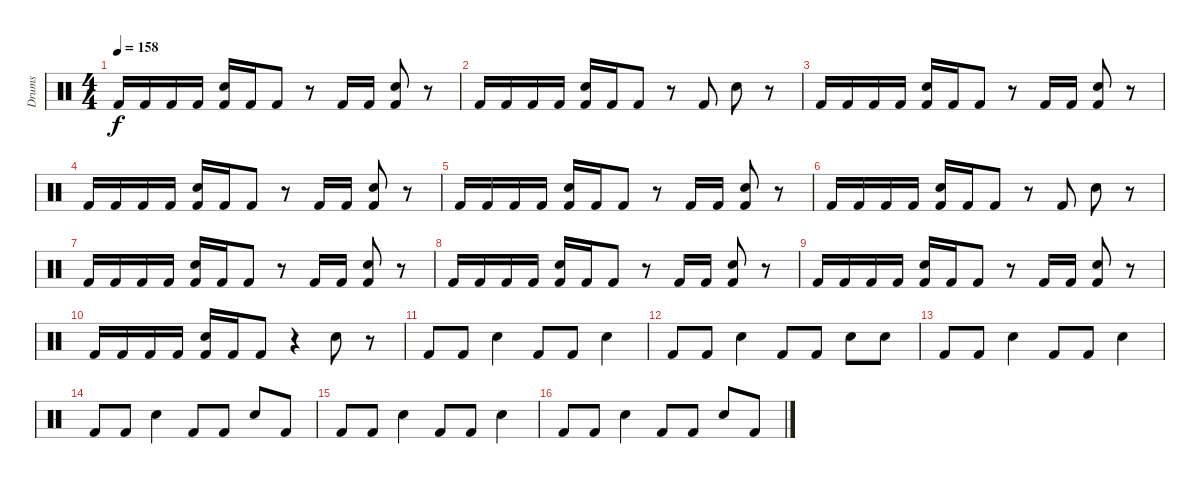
\track ("Drums" "Drums") {instrument percussion}
\staff {score}
\articulation defaults
\ts (4 4)
\tempo 158
\clef neutral
\ks c "Kick (hit) 2".16{dy f} "Kick (hit) 2".16 "Kick (hit) 2".16 "Kick (hit) 2".16
("Snare (hit) 2" "Kick (hit) 2").16 "Kick (hit) 2".16 "Kick (hit) 2".8 r.8 "Kick (hit) 2".16 "Kick (hit) 2".16 ("Snare (hit) 2" "Kick (hit) 2").8 r.8 |
"Kick (hit) 2".16 "Kick (hit) 2".16 "Kick (hit) 2".16 "Kick (hit) 2".16 ("Snare (hit) 2" "Kick (hit) 2").16 "Kick (hit) 2".16 "Kick (hit) 2".8 r.8 "Kick (hit) 2".8 "Snare (hit) 2".8 r.8 |
"Kick (hit) 2".16 "Kick (hit) 2".16 "Kick (hit) 2".16 "Kick (hit) 2".16 ("Snare (hit) 2" "Kick (hit) 2").16 "Kick (hit) 2".16 "Kick (hit) 2".8 r.8 "Kick (hit) 2".16 "Kick (hit) 2".16 ("Snare (hit) 2" "Kick (hit) 2").8 r.8 |
"Kick (hit) 2".16 "Kick (hit) 2".16 "Kick (hit) 2".16 "Kick (hit) 2".16 ("Snare (hit) 2" "Kick (hit) 2").16 "Kick (hit) 2".16 "Kick (hit) 2".8 r.8 "Kick (hit) 2".16 "Kick (hit) 2".16 ("Snare (hit) 2" "Kick (hit) 2").8 r.8 |
"Kick (hit) 2".16 "Kick (hit) 2".16 "Kick (hit) 2".16 "Kick (hit) 2".16 ("Snare (hit) 2" "Kick (hit) 2").16 "Kick (hit) 2".16 "Kick (hit) 2".8 r.8 "Kick (hit) 2".16 "Kick (hit) 2".16 ("Snare (hit) 2" "Kick (hit) 2").8 r.8 |
"Kick (hit) 2".16 "Kick (hit) 2".16 "Kick (hit) 2".16 "Kick (hit) 2".16 ("Snare (hit) 2" "Kick (hit) 2").16 "Kick (hit) 2".16 "Kick (hit) 2".8 r.8 "Kick (hit) 2".8 "Snare (hit) 2".8 r.8 |
"Kick (hit) 2".16 "Kick (hit) 2".16 "Kick (hit) 2".16 "Kick (hit) 2".16 ("Snare (hit) 2" "Kick (hit) 2").16 "Kick (hit) 2".16 "Kick (hit) 2".8 r.8 "Kick (hit) 2".16 "Kick (hit) 2".16 ("Snare (hit) 2" "Kick (hit) 2").8 r.8 |
"Kick (hit) 2".16 "Kick (hit) 2".16 "Kick (hit) 2".16 "Kick (hit) 2".16 ("Snare (hit) 2" "Kick (hit) 2").16 "Kick (hit) 2".16 "Kick (hit) 2".8 r.8 "Kick (hit) 2".16 "Kick (hit) 2".16 ("Snare (hit) 2" "Kick (hit) 2").8 r.8 |
"Kick (hit) 2".16 "Kick (hit) 2".16 "Kick (hit) 2".16 "Kick (hit) 2".16 ("Snare (hit) 2" "Kick (hit) 2").16 "Kick (hit) 2".16 "Kick (hit) 2".8 r.8 "Kick (hit) 2".16 "Kick (hit) 2".16 ("Snare (hit) 2" "Kick (hit) 2").8 r.8 |
"Kick (hit) 2".16 "Kick (hit) 2".16 "Kick (hit) 2".16 "Kick (hit) 2".16 ("Snare (hit) 2" "Kick (hit) 2").16 "Kick (hit) 2".16 "Kick (hit) 2".8 r.4 "Snare (hit) 2".8 r.8 |
"Kick (hit) 2".8 "Kick (hit) 2".8 "Snare (hit) 2".4 "Kick (hit) 2".8 "Kick (hit) 2".8 "Snare (hit) 2".4 |
"Kick (hit) 2".8 "Kick (hit) 2".8 "Snare (hit) 2".4 "Kick (hit) 2".8 "Kick (hit) 2".8 "Snare (hit) 2".8 "Snare (hit) 2".8 |
"Kick (hit) 2".8 "Kick (hit) 2".8 "Snare (hit) 2".4 "Kick (hit) 2".8 "Kick (hit) 2".8 "Snare (hit) 2".4 |
"Kick (hit) 2".8 "Kick (hit) 2".8 "Snare (hit) 2".4 "Kick (hit) 2".8 "Kick (hit) 2".8 "Snare (hit) 2".8 "Kick (hit) 2".8 |
"Kick (hit) 2".8 "Kick (hit) 2".8 "Snare (hit) 2".4 "Kick (hit) 2".8 "Kick (hit) 2".8 "Snare (hit) 2".4 |
"Kick (hit) 2".8 "Kick (hit) 2".8 "Snare (hit) 2".4 "Kick (hit) 2".8 "Kick (hit) 2".8 "Snare (hit) 2".8 "Kick (hit) 2".8
